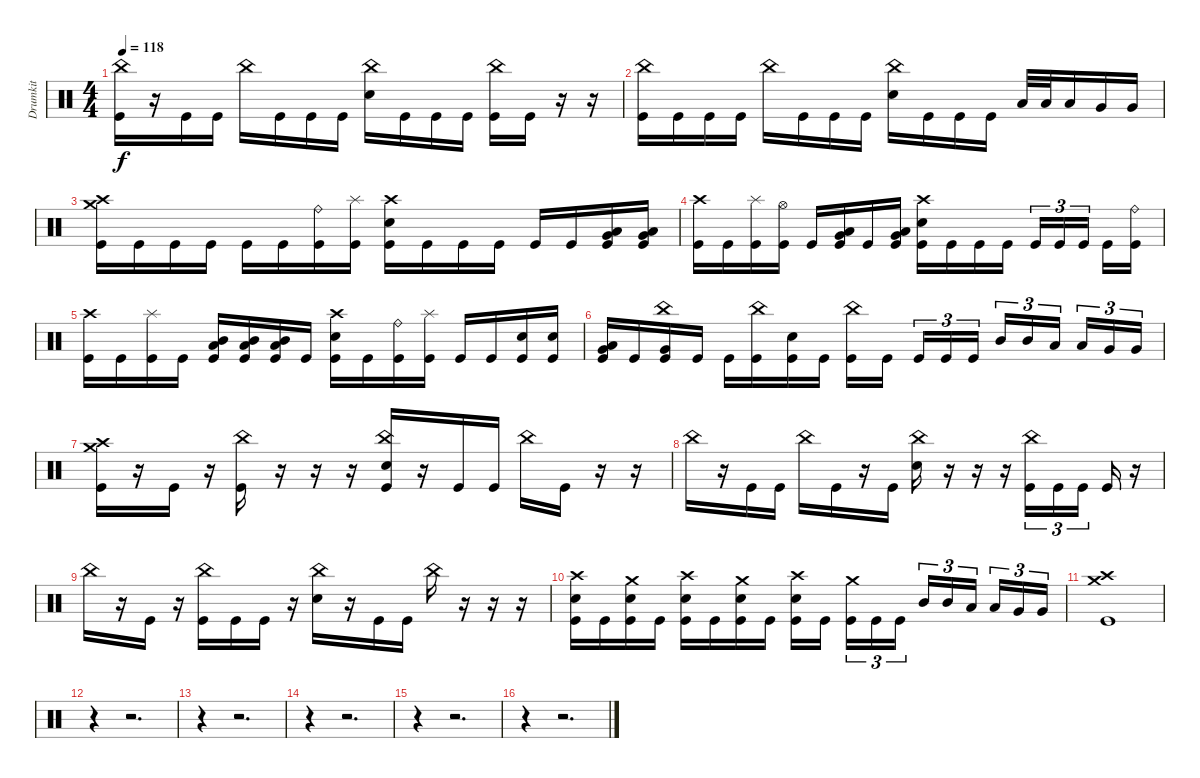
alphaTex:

\track ("Drumkit" "Drumkit") {instrument percussion}
\staff {score}
\articulation defaults
\ts (4 4)
\tempo 118
\clef neutral
\ks c
("Kick (hit)" "China (hit)").16{dy f} r.16 "Kick (hit)".16 "Kick (hit)".16 "China (hit)".16 "Kick (hit)".16 "Kick (hit)".16 "Kick (hit)".16 ("China (hit)" "Snare (hit) 2").16 "Kick (hit)".16 "Kick (hit)".16 "Kick (hit)".16 ("Kick (hit)" "China (hit)").16 "Kick (hit)".16 r.16 r.16 |
("Kick (hit)" "China (hit)").16 "Kick (hit)".16 "Kick (hit)".16 "Kick (hit)".16 "China (hit)".16 "Kick (hit)".16 "Kick (hit)".16 "Kick (hit)".16 ("China (hit)" "Snare (hit) 2").16 "Kick (hit)".16 "Kick (hit)".16 "Kick (hit)".16 "Low Tom (hit)".32 "Low Tom (hit)".32 "Low Tom (hit)".16 "Very Low Tom (hit)".16 "Very Low Tom (hit)".16 |
("Crash high (hit)" "Crash medium (hit)" "Kick (hit)").16 "Kick (hit)".16 "Kick (hit)".16 "Kick (hit)".16 "Kick (hit)".16 "Kick (hit)".16 ("Ride (bell)" "Kick (hit)").16 ("Splash (hit)" "Kick (hit)").16 ("Crash high (hit)" "Snare (hit) 2" "Kick (hit)").16 "Kick (hit)".16 "Kick (hit)".16 "Kick (hit)".16 "Kick (hit)".16 "Kick (hit)".16 ("Low Tom (hit)" "Very Low Tom (hit)" "Kick (hit)").16 ("Low Tom (hit)" "Very Low Tom (hit)" "Kick (hit)").16 |
("Crash high (hit)" "Kick (hit)").16 "Kick (hit)".16 ("Splash (hit)" "Kick (hit)").16 ("Hi-Hat (open)" "Kick (hit)").16 "Kick (hit)".16 ("Very Low Tom (hit)" "Low Tom (hit)" "Kick (hit)").16 "Kick (hit)".16 ("Very Low Tom (hit)" "Low Tom (hit)" "Kick (hit)").16 ("Crash high (hit)" "Snare (hit) 2" "Kick (hit)").16 "Kick (hit)".16 "Kick (hit)".16 "Kick (hit)".16 "Kick (hit)".16{tu (3 2)} "Kick (hit)".16{tu (3 2)} "Kick (hit)".16{tu (3 2)} "Kick (hit)".16 ("Ride (bell)" "Kick (hit)").16 |
("Crash high (hit)" "Kick (hit)").16 "Kick (hit)".16 ("Splash (hit)" "Kick (hit)").16 "Kick (hit)".16 ("Mid Tom (hit)" "Low Tom (hit)" "Kick (hit)").16 ("Mid Tom (hit)" "Low Tom (hit)" "Kick (hit)").16 ("Mid Tom (hit)" "Low Tom (hit)" "Kick (hit)").16 "Kick (hit)".16 ("Crash high (hit)" "Snare (hit) 2" "Kick (hit)").16 "Kick (hit)".16 ("Ride (bell)" "Kick (hit)").16 ("Splash (hit)" "Kick (hit)").16 "Kick (hit)".16 "Kick (hit)".16 ("Snare (hit) 2" "Kick (hit)").16 ("Snare (hit) 2" "Kick (hit)").16 |
("Low Tom (hit)" "Very Low Tom (hit)" "Kick (hit)").16 "Kick (hit)".16 ("China (hit)" "Very Low Tom (hit)" "Kick (hit)").16 "Kick (hit)".16 "Kick (hit)".16 ("China (hit)" "Kick (hit)").16 ("Snare (hit) 2" "Kick (hit)").16 "Kick (hit)".16 ("China (hit)" "Kick (hit)").16 "Kick (hit)".16 "Kick (hit)".16{tu (3 2)} "Kick (hit)".16{tu (3 2)} "Kick (hit)".16{tu (3 2)} "Mid Tom (hit)".16{tu (3 2)} "Mid Tom (hit)".16{tu (3 2)} "Low Tom (hit)".16{tu (3 2)} "Low Tom (hit)".16{tu (3 2)} "Very Low Tom (hit)".16{tu (3 2)} "Very Low Tom (hit)".16{tu (3 2)} |
("Kick (hit)" "Crash medium (hit)" "Crash high (hit)").16 r.16 "Kick (hit)".16 r.16 ("Kick (hit)" "China (hit)").16 r.16 r.16 r.16 ("Kick (hit)" "China (hit)" "Snare (hit) 2").16 r.16 "Kick (hit)".16 "Kick (hit)".16 "China (hit)".16 "Kick (hit)".16 r.16 r.16 |
"China (hit)".16 r.16 "Kick (hit)".16 "Kick (hit)".16 "China (hit)".16 "Kick (hit)".16 r.16 "Kick (hit)".16 ("China (hit)" "Snare (hit) 2").16 r.16 r.16 r.16 ("Kick (hit)" "China (hit)").16{tu (3 2)} "Kick (hit)".16{tu (3 2)} "Kick (hit)".16{tu (3 2)} "Kick (hit)".16 r.16 |
"China (hit)".16 r.16 "Kick (hit)".16 r.16 ("Kick (hit)" "China (hit)").16 "Kick (hit)".16 "Kick (hit)".16 r.16 ("China (hit)" "Snare (hit) 2").16 r.16 "Kick (hit)".16 "Kick (hit)".16 "China (hit)".16 r.16 r.16 r.16 |
("Crash high (hit)" "Snare (hit) 2" "Kick (hit)").16 "Kick (hit)".16 ("Crash medium (hit)" "Snare (hit) 2" "Kick (hit)").16 "Kick (hit)".16 ("Crash high (hit)" "Snare (hit) 2" "Kick (hit)").16 "Kick (hit)".16 ("Crash medium (hit)" "Snare (hit) 2" "Kick (hit)").16 "Kick (hit)".16 ("Crash high (hit)" "Snare (hit) 2" "Kick (hit)").16 "Kick (hit)".16 ("Crash medium (hit)" "Kick (hit)").16{tu (3 2)} "Kick (hit)".16{tu (3 2)} "Kick (hit)".16{tu (3 2)} "Mid Tom (hit)".16{tu (3 2)} "Mid Tom (hit)".16{tu (3 2)} "Low Tom (hit)".16{tu (3 2)} "Low Tom (hit)".16{tu (3 2)} "Very Low Tom (hit)".16{tu (3 2)} "Very Low Tom (hit)".16{tu (3 2)} |
("Kick (hit)" "Crash high (hit)" "Crash medium (hit)").1 |
r.4 r.2{d} |
r.4 r.2{d} |
r.4 r.2{d} |
r.4 r.2{d} |
r.4 r.2{d}
